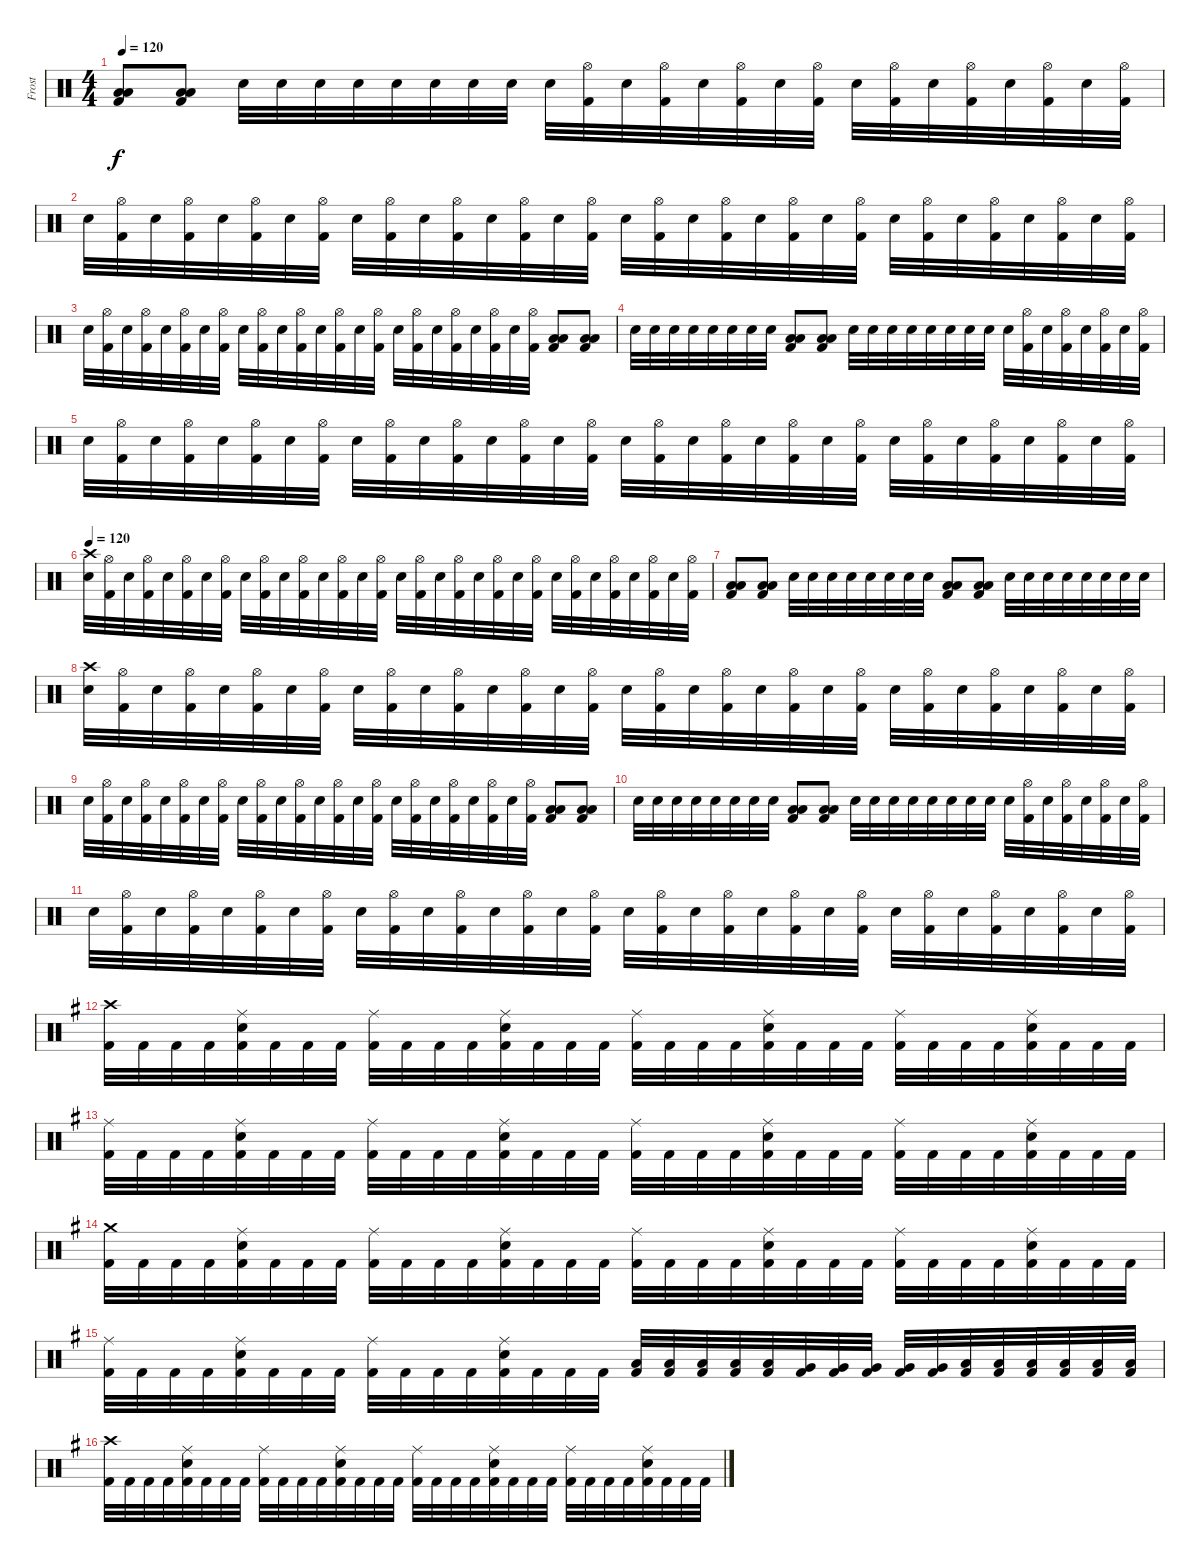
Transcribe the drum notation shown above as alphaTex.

\track ("Frost" "Frost") {instrument percussion}
\staff {score}
\articulation defaults
\ts (4 4)
\tempo 120
\clef neutral
\ks c
("Low Floor Tom (hit)" "Low Tom (hit)" "Kick (hit) 2").8{dy f} ("Low Floor Tom (hit)" "Low Tom (hit)" "Kick (hit) 2").8 "Snare (hit) 2".32 "Snare (hit) 2".32 "Snare (hit) 2".32 "Snare (hit) 2".32 "Snare (hit) 2".32 "Snare (hit) 2".32 "Snare (hit) 2".32 "Snare (hit) 2".32 "Snare (hit) 2".32 ("Hi-Hat (open)" "Kick (hit) 2").32 "Snare (hit) 2".32 ("Hi-Hat (open)" "Kick (hit) 2").32 "Snare (hit) 2".32 ("Hi-Hat (open)" "Kick (hit) 2").32 "Snare (hit) 2".32 ("Hi-Hat (open)" "Kick (hit) 2").32 "Snare (hit) 2".32 ("Hi-Hat (open)" "Kick (hit) 2").32 "Snare (hit) 2".32 ("Hi-Hat (open)" "Kick (hit) 2").32 "Snare (hit) 2".32 ("Hi-Hat (open)" "Kick (hit) 2").32 "Snare (hit) 2".32 ("Hi-Hat (open)" "Kick (hit) 2").32 |
"Snare (hit) 2".32 ("Hi-Hat (open)" "Kick (hit) 2").32 "Snare (hit) 2".32 ("Hi-Hat (open)" "Kick (hit) 2").32 "Snare (hit) 2".32 ("Hi-Hat (open)" "Kick (hit) 2").32 "Snare (hit) 2".32 ("Hi-Hat (open)" "Kick (hit) 2").32 "Snare (hit) 2".32 ("Hi-Hat (open)" "Kick (hit) 2").32 "Snare (hit) 2".32 ("Hi-Hat (open)" "Kick (hit) 2").32 "Snare (hit) 2".32 ("Hi-Hat (open)" "Kick (hit) 2").32 "Snare (hit) 2".32 ("Hi-Hat (open)" "Kick (hit) 2").32 "Snare (hit) 2".32 ("Hi-Hat (open)" "Kick (hit) 2").32 "Snare (hit) 2".32 ("Hi-Hat (open)" "Kick (hit) 2").32 "Snare (hit) 2".32 ("Hi-Hat (open)" "Kick (hit) 2").32 "Snare (hit) 2".32 ("Hi-Hat (open)" "Kick (hit) 2").32 "Snare (hit) 2".32 ("Hi-Hat (open)" "Kick (hit) 2").32 "Snare (hit) 2".32 ("Hi-Hat (open)" "Kick (hit) 2").32 "Snare (hit) 2".32 ("Hi-Hat (open)" "Kick (hit) 2").32 "Snare (hit) 2".32 ("Hi-Hat (open)" "Kick (hit) 2").32 |
"Snare (hit) 2".32 ("Hi-Hat (open)" "Kick (hit) 2").32 "Snare (hit) 2".32 ("Hi-Hat (open)" "Kick (hit) 2").32 "Snare (hit) 2".32 ("Hi-Hat (open)" "Kick (hit) 2").32 "Snare (hit) 2".32 ("Hi-Hat (open)" "Kick (hit) 2").32 "Snare (hit) 2".32 ("Hi-Hat (open)" "Kick (hit) 2").32 "Snare (hit) 2".32 ("Hi-Hat (open)" "Kick (hit) 2").32 "Snare (hit) 2".32 ("Hi-Hat (open)" "Kick (hit) 2").32 "Snare (hit) 2".32 ("Hi-Hat (open)" "Kick (hit) 2").32 "Snare (hit) 2".32 ("Hi-Hat (open)" "Kick (hit) 2").32 "Snare (hit) 2".32 ("Hi-Hat (open)" "Kick (hit) 2").32 "Snare (hit) 2".32 ("Hi-Hat (open)" "Kick (hit) 2").32 "Snare (hit) 2".32 ("Hi-Hat (open)" "Kick (hit) 2").32 ("Low Floor Tom (hit)" "Low Tom (hit)" "Kick (hit) 2").8 ("Low Floor Tom (hit)" "Low Tom (hit)" "Kick (hit) 2").8 |
"Snare (hit) 2".32 "Snare (hit) 2".32 "Snare (hit) 2".32 "Snare (hit) 2".32 "Snare (hit) 2".32 "Snare (hit) 2".32 "Snare (hit) 2".32 "Snare (hit) 2".32 ("Low Floor Tom (hit)" "Low Tom (hit)" "Kick (hit) 2").8 ("Low Floor Tom (hit)" "Low Tom (hit)" "Kick (hit) 2").8 "Snare (hit) 2".32 "Snare (hit) 2".32 "Snare (hit) 2".32 "Snare (hit) 2".32 "Snare (hit) 2".32 "Snare (hit) 2".32 "Snare (hit) 2".32 "Snare (hit) 2".32 "Snare (hit) 2".32 ("Hi-Hat (open)" "Kick (hit) 2").32 "Snare (hit) 2".32 ("Hi-Hat (open)" "Kick (hit) 2").32 "Snare (hit) 2".32 ("Hi-Hat (open)" "Kick (hit) 2").32 "Snare (hit) 2".32 ("Hi-Hat (open)" "Kick (hit) 2").32 |
"Snare (hit) 2".32 ("Hi-Hat (open)" "Kick (hit) 2").32 "Snare (hit) 2".32 ("Hi-Hat (open)" "Kick (hit) 2").32 "Snare (hit) 2".32 ("Hi-Hat (open)" "Kick (hit) 2").32 "Snare (hit) 2".32 ("Hi-Hat (open)" "Kick (hit) 2").32 "Snare (hit) 2".32 ("Hi-Hat (open)" "Kick (hit) 2").32 "Snare (hit) 2".32 ("Hi-Hat (open)" "Kick (hit) 2").32 "Snare (hit) 2".32 ("Hi-Hat (open)" "Kick (hit) 2").32 "Snare (hit) 2".32 ("Hi-Hat (open)" "Kick (hit) 2").32 "Snare (hit) 2".32 ("Hi-Hat (open)" "Kick (hit) 2").32 "Snare (hit) 2".32 ("Hi-Hat (open)" "Kick (hit) 2").32 "Snare (hit) 2".32 ("Hi-Hat (open)" "Kick (hit) 2").32 "Snare (hit) 2".32 ("Hi-Hat (open)" "Kick (hit) 2").32 "Snare (hit) 2".32 ("Hi-Hat (open)" "Kick (hit) 2").32 "Snare (hit) 2".32 ("Hi-Hat (open)" "Kick (hit) 2").32 "Snare (hit) 2".32 ("Hi-Hat (open)" "Kick (hit) 2").32 "Snare (hit) 2".32 ("Hi-Hat (open)" "Kick (hit) 2").32 |
\tempo 120
("Crash high (hit)" "Snare (hit) 2").32 ("Hi-Hat (open)" "Kick (hit) 2").32 "Snare (hit) 2".32 ("Hi-Hat (open)" "Kick (hit) 2").32 "Snare (hit) 2".32 ("Hi-Hat (open)" "Kick (hit) 2").32 "Snare (hit) 2".32 ("Hi-Hat (open)" "Kick (hit) 2").32 "Snare (hit) 2".32 ("Hi-Hat (open)" "Kick (hit) 2").32 "Snare (hit) 2".32 ("Hi-Hat (open)" "Kick (hit) 2").32 "Snare (hit) 2".32 ("Hi-Hat (open)" "Kick (hit) 2").32 "Snare (hit) 2".32 ("Hi-Hat (open)" "Kick (hit) 2").32 "Snare (hit) 2".32 ("Hi-Hat (open)" "Kick (hit) 2").32 "Snare (hit) 2".32 ("Hi-Hat (open)" "Kick (hit) 2").32 "Snare (hit) 2".32 ("Hi-Hat (open)" "Kick (hit) 2").32 "Snare (hit) 2".32 ("Hi-Hat (open)" "Kick (hit) 2").32 "Snare (hit) 2".32 ("Hi-Hat (open)" "Kick (hit) 2").32 "Snare (hit) 2".32 ("Hi-Hat (open)" "Kick (hit) 2").32 "Snare (hit) 2".32 ("Hi-Hat (open)" "Kick (hit) 2").32 "Snare (hit) 2".32 ("Hi-Hat (open)" "Kick (hit) 2").32 |
("Low Floor Tom (hit)" "Low Tom (hit)" "Kick (hit) 2").8 ("Low Floor Tom (hit)" "Low Tom (hit)" "Kick (hit) 2").8 "Snare (hit) 2".32 "Snare (hit) 2".32 "Snare (hit) 2".32 "Snare (hit) 2".32 "Snare (hit) 2".32 "Snare (hit) 2".32 "Snare (hit) 2".32 "Snare (hit) 2".32 ("Low Floor Tom (hit)" "Low Tom (hit)" "Kick (hit) 2").8 ("Low Floor Tom (hit)" "Low Tom (hit)" "Kick (hit) 2").8 "Snare (hit) 2".32 "Snare (hit) 2".32 "Snare (hit) 2".32 "Snare (hit) 2".32 "Snare (hit) 2".32 "Snare (hit) 2".32 "Snare (hit) 2".32 "Snare (hit) 2".32 |
("Crash high (hit)" "Snare (hit) 2").32 ("Hi-Hat (open)" "Kick (hit) 2").32 "Snare (hit) 2".32 ("Hi-Hat (open)" "Kick (hit) 2").32 "Snare (hit) 2".32 ("Hi-Hat (open)" "Kick (hit) 2").32 "Snare (hit) 2".32 ("Hi-Hat (open)" "Kick (hit) 2").32 "Snare (hit) 2".32 ("Hi-Hat (open)" "Kick (hit) 2").32 "Snare (hit) 2".32 ("Hi-Hat (open)" "Kick (hit) 2").32 "Snare (hit) 2".32 ("Hi-Hat (open)" "Kick (hit) 2").32 "Snare (hit) 2".32 ("Hi-Hat (open)" "Kick (hit) 2").32 "Snare (hit) 2".32 ("Hi-Hat (open)" "Kick (hit) 2").32 "Snare (hit) 2".32 ("Hi-Hat (open)" "Kick (hit) 2").32 "Snare (hit) 2".32 ("Hi-Hat (open)" "Kick (hit) 2").32 "Snare (hit) 2".32 ("Hi-Hat (open)" "Kick (hit) 2").32 "Snare (hit) 2".32 ("Hi-Hat (open)" "Kick (hit) 2").32 "Snare (hit) 2".32 ("Hi-Hat (open)" "Kick (hit) 2").32 "Snare (hit) 2".32 ("Hi-Hat (open)" "Kick (hit) 2").32 "Snare (hit) 2".32 ("Hi-Hat (open)" "Kick (hit) 2").32 |
"Snare (hit) 2".32 ("Hi-Hat (open)" "Kick (hit) 2").32 "Snare (hit) 2".32 ("Hi-Hat (open)" "Kick (hit) 2").32 "Snare (hit) 2".32 ("Hi-Hat (open)" "Kick (hit) 2").32 "Snare (hit) 2".32 ("Hi-Hat (open)" "Kick (hit) 2").32 "Snare (hit) 2".32 ("Hi-Hat (open)" "Kick (hit) 2").32 "Snare (hit) 2".32 ("Hi-Hat (open)" "Kick (hit) 2").32 "Snare (hit) 2".32 ("Hi-Hat (open)" "Kick (hit) 2").32 "Snare (hit) 2".32 ("Hi-Hat (open)" "Kick (hit) 2").32 "Snare (hit) 2".32 ("Hi-Hat (open)" "Kick (hit) 2").32 "Snare (hit) 2".32 ("Hi-Hat (open)" "Kick (hit) 2").32 "Snare (hit) 2".32 ("Hi-Hat (open)" "Kick (hit) 2").32 "Snare (hit) 2".32 ("Hi-Hat (open)" "Kick (hit) 2").32 ("Low Floor Tom (hit)" "Low Tom (hit)" "Kick (hit) 2").8 ("Low Floor Tom (hit)" "Low Tom (hit)" "Kick (hit) 2").8 |
"Snare (hit) 2".32 "Snare (hit) 2".32 "Snare (hit) 2".32 "Snare (hit) 2".32 "Snare (hit) 2".32 "Snare (hit) 2".32 "Snare (hit) 2".32 "Snare (hit) 2".32 ("Low Floor Tom (hit)" "Low Tom (hit)" "Kick (hit) 2").8 ("Low Floor Tom (hit)" "Low Tom (hit)" "Kick (hit) 2").8 "Snare (hit) 2".32 "Snare (hit) 2".32 "Snare (hit) 2".32 "Snare (hit) 2".32 "Snare (hit) 2".32 "Snare (hit) 2".32 "Snare (hit) 2".32 "Snare (hit) 2".32 "Snare (hit) 2".32 ("Hi-Hat (open)" "Kick (hit) 2").32 "Snare (hit) 2".32 ("Hi-Hat (open)" "Kick (hit) 2").32 "Snare (hit) 2".32 ("Hi-Hat (open)" "Kick (hit) 2").32 "Snare (hit) 2".32 ("Hi-Hat (open)" "Kick (hit) 2").32 |
"Snare (hit) 2".32 ("Hi-Hat (open)" "Kick (hit) 2").32 "Snare (hit) 2".32 ("Hi-Hat (open)" "Kick (hit) 2").32 "Snare (hit) 2".32 ("Hi-Hat (open)" "Kick (hit) 2").32 "Snare (hit) 2".32 ("Hi-Hat (open)" "Kick (hit) 2").32 "Snare (hit) 2".32 ("Hi-Hat (open)" "Kick (hit) 2").32 "Snare (hit) 2".32 ("Hi-Hat (open)" "Kick (hit) 2").32 "Snare (hit) 2".32 ("Hi-Hat (open)" "Kick (hit) 2").32 "Snare (hit) 2".32 ("Hi-Hat (open)" "Kick (hit) 2").32 "Snare (hit) 2".32 ("Hi-Hat (open)" "Kick (hit) 2").32 "Snare (hit) 2".32 ("Hi-Hat (open)" "Kick (hit) 2").32 "Snare (hit) 2".32 ("Hi-Hat (open)" "Kick (hit) 2").32 "Snare (hit) 2".32 ("Hi-Hat (open)" "Kick (hit) 2").32 "Snare (hit) 2".32 ("Hi-Hat (open)" "Kick (hit) 2").32 "Snare (hit) 2".32 ("Hi-Hat (open)" "Kick (hit) 2").32 "Snare (hit) 2".32 ("Hi-Hat (open)" "Kick (hit) 2").32 "Snare (hit) 2".32 ("Hi-Hat (open)" "Kick (hit) 2").32 |
\ks g
("Crash high (hit)" "Kick (hit) 2").32 "Kick (hit) 2".32 "Kick (hit) 2".32 "Kick (hit) 2".32 ("Ride (middle)" "Snare (hit) 2" "Kick (hit) 2").32 "Kick (hit) 2".32 "Kick (hit) 2".32 "Kick (hit) 2".32 ("Ride (middle)" "Kick (hit) 2").32 "Kick (hit) 2".32 "Kick (hit) 2".32 "Kick (hit) 2".32 ("Ride (middle)" "Snare (hit) 2" "Kick (hit) 2").32 "Kick (hit) 2".32 "Kick (hit) 2".32 "Kick (hit) 2".32 ("Ride (middle)" "Kick (hit) 2").32 "Kick (hit) 2".32 "Kick (hit) 2".32 "Kick (hit) 2".32 ("Ride (middle)" "Snare (hit) 2" "Kick (hit) 2").32 "Kick (hit) 2".32 "Kick (hit) 2".32 "Kick (hit) 2".32 ("Ride (middle)" "Kick (hit) 2").32 "Kick (hit) 2".32 "Kick (hit) 2".32 "Kick (hit) 2".32 ("Ride (middle)" "Snare (hit) 2" "Kick (hit) 2").32 "Kick (hit) 2".32 "Kick (hit) 2".32 "Kick (hit) 2".32 |
("Ride (middle)" "Kick (hit) 2").32 "Kick (hit) 2".32 "Kick (hit) 2".32 "Kick (hit) 2".32 ("Ride (middle)" "Snare (hit) 2" "Kick (hit) 2").32 "Kick (hit) 2".32 "Kick (hit) 2".32 "Kick (hit) 2".32 ("Ride (middle)" "Kick (hit) 2").32 "Kick (hit) 2".32 "Kick (hit) 2".32 "Kick (hit) 2".32 ("Ride (middle)" "Snare (hit) 2" "Kick (hit) 2").32 "Kick (hit) 2".32 "Kick (hit) 2".32 "Kick (hit) 2".32 ("Ride (middle)" "Kick (hit) 2").32 "Kick (hit) 2".32 "Kick (hit) 2".32 "Kick (hit) 2".32 ("Ride (middle)" "Snare (hit) 2" "Kick (hit) 2").32 "Kick (hit) 2".32 "Kick (hit) 2".32 "Kick (hit) 2".32 ("Ride (middle)" "Kick (hit) 2").32 "Kick (hit) 2".32 "Kick (hit) 2".32 "Kick (hit) 2".32 ("Ride (middle)" "Snare (hit) 2" "Kick (hit) 2").32 "Kick (hit) 2".32 "Kick (hit) 2".32 "Kick (hit) 2".32 |
("Crash medium (hit)" "Kick (hit) 2").32 "Kick (hit) 2".32 "Kick (hit) 2".32 "Kick (hit) 2".32 ("Ride (middle)" "Snare (hit) 2" "Kick (hit) 2").32 "Kick (hit) 2".32 "Kick (hit) 2".32 "Kick (hit) 2".32 ("Ride (middle)" "Kick (hit) 2").32 "Kick (hit) 2".32 "Kick (hit) 2".32 "Kick (hit) 2".32 ("Ride (middle)" "Snare (hit) 2" "Kick (hit) 2").32 "Kick (hit) 2".32 "Kick (hit) 2".32 "Kick (hit) 2".32 ("Ride (middle)" "Kick (hit) 2").32 "Kick (hit) 2".32 "Kick (hit) 2".32 "Kick (hit) 2".32 ("Ride (middle)" "Snare (hit) 2" "Kick (hit) 2").32 "Kick (hit) 2".32 "Kick (hit) 2".32 "Kick (hit) 2".32 ("Ride (middle)" "Kick (hit) 2").32 "Kick (hit) 2".32 "Kick (hit) 2".32 "Kick (hit) 2".32 ("Ride (middle)" "Snare (hit) 2" "Kick (hit) 2").32 "Kick (hit) 2".32 "Kick (hit) 2".32 "Kick (hit) 2".32 |
("Ride (middle)" "Kick (hit) 2").32 "Kick (hit) 2".32 "Kick (hit) 2".32 "Kick (hit) 2".32 ("Ride (middle)" "Snare (hit) 2" "Kick (hit) 2").32 "Kick (hit) 2".32 "Kick (hit) 2".32 "Kick (hit) 2".32 ("Ride (middle)" "Kick (hit) 2").32 "Kick (hit) 2".32 "Kick (hit) 2".32 "Kick (hit) 2".32 ("Ride (middle)" "Snare (hit) 2" "Kick (hit) 2").32 "Kick (hit) 2".32 "Kick (hit) 2".32 "Kick (hit) 2".32 ("Low Tom (hit)" "Kick (hit) 2").32 ("Low Tom (hit)" "Kick (hit) 2").32 ("Low Tom (hit)" "Kick (hit) 2").32 ("Low Tom (hit)" "Kick (hit) 2").32 ("Low Tom (hit)" "Kick (hit) 2").32 ("Very Low Tom (hit)" "Kick (hit) 2").32 ("Very Low Tom (hit)" "Kick (hit) 2").32 ("Very Low Tom (hit)" "Kick (hit) 2").32 ("Very Low Tom (hit)" "Kick (hit) 2").32 ("Very Low Tom (hit)" "Kick (hit) 2").32 ("Low Floor Tom (hit)" "Kick (hit) 2").32 ("Low Floor Tom (hit)" "Kick (hit) 2").32 ("Low Floor Tom (hit)" "Kick (hit) 2").32 ("Low Floor Tom (hit)" "Kick (hit) 2").32 ("Low Floor Tom (hit)" "Kick (hit) 2").32 ("Low Floor Tom (hit)" "Kick (hit) 2").32 |
("Crash high (hit)" "Kick (hit) 2").32 "Kick (hit) 2".32 "Kick (hit) 2".32 "Kick (hit) 2".32 ("Ride (middle)" "Snare (hit) 2" "Kick (hit) 2").32 "Kick (hit) 2".32 "Kick (hit) 2".32 "Kick (hit) 2".32 ("Ride (middle)" "Kick (hit) 2").32 "Kick (hit) 2".32 "Kick (hit) 2".32 "Kick (hit) 2".32 ("Ride (middle)" "Snare (hit) 2" "Kick (hit) 2").32 "Kick (hit) 2".32 "Kick (hit) 2".32 "Kick (hit) 2".32 ("Ride (middle)" "Kick (hit) 2").32 "Kick (hit) 2".32 "Kick (hit) 2".32 "Kick (hit) 2".32 ("Ride (middle)" "Snare (hit) 2" "Kick (hit) 2").32 "Kick (hit) 2".32 "Kick (hit) 2".32 "Kick (hit) 2".32 ("Ride (middle)" "Kick (hit) 2").32 "Kick (hit) 2".32 "Kick (hit) 2".32 "Kick (hit) 2".32 ("Ride (middle)" "Snare (hit) 2" "Kick (hit) 2").32 "Kick (hit) 2".32 "Kick (hit) 2".32 "Kick (hit) 2".32
